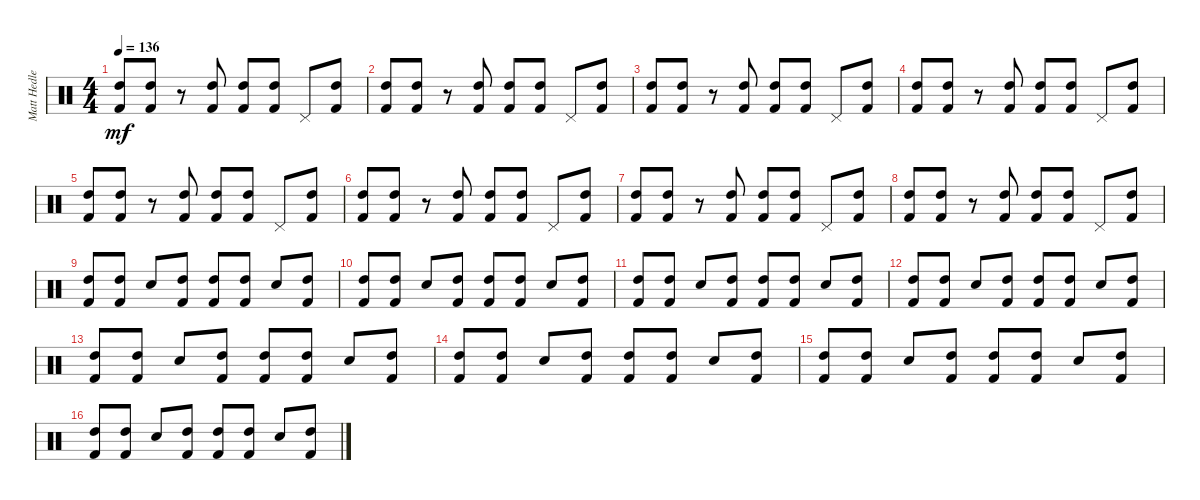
\track ("Matt Hedlers" "Matt Hedle") {instrument percussion}
\staff {score}
\articulation defaults
\ts (4 4)
\tempo 136
\clef neutral
\ks c
("High Tom (hit)" "Kick (hit) 2").8{dy mf} ("High Tom (hit)" "Kick (hit) 2").8 r.8 ("High Tom (hit)" "Kick (hit) 2").8 ("High Tom (hit)" "Kick (hit) 2").8 ("High Tom (hit)" "Kick (hit) 2").8 "Pedal Hi-Hat (hit)".8 ("High Tom (hit)" "Kick (hit) 2").8 |
("High Tom (hit)" "Kick (hit) 2").8 ("High Tom (hit)" "Kick (hit) 2").8 r.8 ("High Tom (hit)" "Kick (hit) 2").8 ("High Tom (hit)" "Kick (hit) 2").8 ("High Tom (hit)" "Kick (hit) 2").8 "Pedal Hi-Hat (hit)".8 ("High Tom (hit)" "Kick (hit) 2").8 |
("High Tom (hit)" "Kick (hit) 2").8 ("High Tom (hit)" "Kick (hit) 2").8 r.8 ("High Tom (hit)" "Kick (hit) 2").8 ("High Tom (hit)" "Kick (hit) 2").8 ("High Tom (hit)" "Kick (hit) 2").8 "Pedal Hi-Hat (hit)".8 ("High Tom (hit)" "Kick (hit) 2").8 |
("High Tom (hit)" "Kick (hit) 2").8 ("High Tom (hit)" "Kick (hit) 2").8 r.8 ("High Tom (hit)" "Kick (hit) 2").8 ("High Tom (hit)" "Kick (hit) 2").8 ("High Tom (hit)" "Kick (hit) 2").8 "Pedal Hi-Hat (hit)".8 ("High Tom (hit)" "Kick (hit) 2").8 |
("High Tom (hit)" "Kick (hit) 2").8 ("High Tom (hit)" "Kick (hit) 2").8 r.8 ("High Tom (hit)" "Kick (hit) 2").8 ("High Tom (hit)" "Kick (hit) 2").8 ("High Tom (hit)" "Kick (hit) 2").8 "Pedal Hi-Hat (hit)".8 ("High Tom (hit)" "Kick (hit) 2").8 |
("High Tom (hit)" "Kick (hit) 2").8 ("High Tom (hit)" "Kick (hit) 2").8 r.8 ("High Tom (hit)" "Kick (hit) 2").8 ("High Tom (hit)" "Kick (hit) 2").8 ("High Tom (hit)" "Kick (hit) 2").8 "Pedal Hi-Hat (hit)".8 ("High Tom (hit)" "Kick (hit) 2").8 |
("High Tom (hit)" "Kick (hit) 2").8 ("High Tom (hit)" "Kick (hit) 2").8 r.8 ("High Tom (hit)" "Kick (hit) 2").8 ("High Tom (hit)" "Kick (hit) 2").8 ("High Tom (hit)" "Kick (hit) 2").8 "Pedal Hi-Hat (hit)".8 ("High Tom (hit)" "Kick (hit) 2").8 |
("High Tom (hit)" "Kick (hit) 2").8 ("High Tom (hit)" "Kick (hit) 2").8 r.8 ("High Tom (hit)" "Kick (hit) 2").8 ("High Tom (hit)" "Kick (hit) 2").8 ("High Tom (hit)" "Kick (hit) 2").8 "Pedal Hi-Hat (hit)".8 ("High Tom (hit)" "Kick (hit) 2").8 |
("High Tom (hit)" "Kick (hit) 2").8 ("High Tom (hit)" "Kick (hit) 2").8 "Snare (hit) 2".8 ("High Tom (hit)" "Kick (hit) 2").8 ("High Tom (hit)" "Kick (hit) 2").8 ("High Tom (hit)" "Kick (hit) 2").8 "Snare (hit) 2".8 ("High Tom (hit)" "Kick (hit) 2").8 |
("High Tom (hit)" "Kick (hit) 2").8 ("High Tom (hit)" "Kick (hit) 2").8 "Snare (hit) 2".8 ("High Tom (hit)" "Kick (hit) 2").8 ("High Tom (hit)" "Kick (hit) 2").8 ("High Tom (hit)" "Kick (hit) 2").8 "Snare (hit) 2".8 ("High Tom (hit)" "Kick (hit) 2").8 |
("High Tom (hit)" "Kick (hit) 2").8 ("High Tom (hit)" "Kick (hit) 2").8 "Snare (hit) 2".8 ("High Tom (hit)" "Kick (hit) 2").8 ("High Tom (hit)" "Kick (hit) 2").8 ("High Tom (hit)" "Kick (hit) 2").8 "Snare (hit) 2".8 ("High Tom (hit)" "Kick (hit) 2").8 |
("High Tom (hit)" "Kick (hit) 2").8 ("High Tom (hit)" "Kick (hit) 2").8 "Snare (hit) 2".8 ("High Tom (hit)" "Kick (hit) 2").8 ("High Tom (hit)" "Kick (hit) 2").8 ("High Tom (hit)" "Kick (hit) 2").8 "Snare (hit) 2".8 ("High Tom (hit)" "Kick (hit) 2").8 |
("High Tom (hit)" "Kick (hit) 2").8 ("High Tom (hit)" "Kick (hit) 2").8 "Snare (hit) 2".8 ("High Tom (hit)" "Kick (hit) 2").8 ("High Tom (hit)" "Kick (hit) 2").8 ("High Tom (hit)" "Kick (hit) 2").8 "Snare (hit) 2".8 ("High Tom (hit)" "Kick (hit) 2").8 |
("High Tom (hit)" "Kick (hit) 2").8 ("High Tom (hit)" "Kick (hit) 2").8 "Snare (hit) 2".8 ("High Tom (hit)" "Kick (hit) 2").8 ("High Tom (hit)" "Kick (hit) 2").8 ("High Tom (hit)" "Kick (hit) 2").8 "Snare (hit) 2".8 ("High Tom (hit)" "Kick (hit) 2").8 |
("High Tom (hit)" "Kick (hit) 2").8 ("High Tom (hit)" "Kick (hit) 2").8 "Snare (hit) 2".8 ("High Tom (hit)" "Kick (hit) 2").8 ("High Tom (hit)" "Kick (hit) 2").8 ("High Tom (hit)" "Kick (hit) 2").8 "Snare (hit) 2".8 ("High Tom (hit)" "Kick (hit) 2").8 |
("High Tom (hit)" "Kick (hit) 2").8 ("High Tom (hit)" "Kick (hit) 2").8 "Snare (hit) 2".8 ("High Tom (hit)" "Kick (hit) 2").8 ("High Tom (hit)" "Kick (hit) 2").8 ("High Tom (hit)" "Kick (hit) 2").8 "Snare (hit) 2".8 ("High Tom (hit)" "Kick (hit) 2").8
